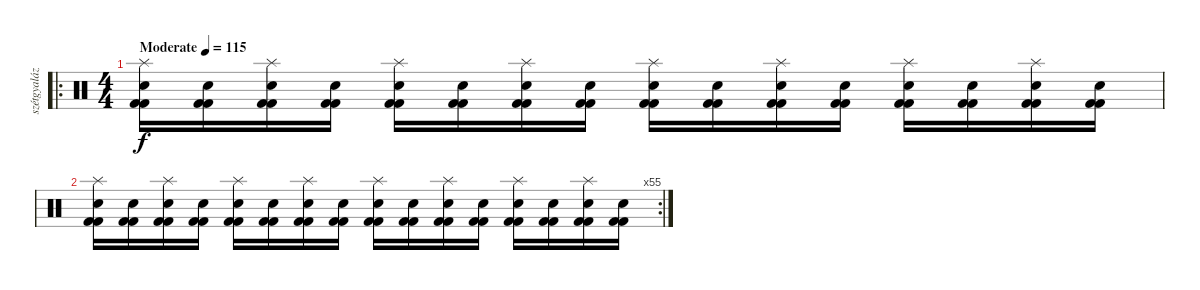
\track ("szétgyalázó" "szétgyaláz") {instrument percussion}
\staff {score}
\articulation defaults
\ro
\ts (4 4)
\tempo (115 "Moderate")
\clef neutral
\ks c
("Splash (hit)" "Electric Snare (hit)" "Kick (hit) 2" "Kick (hit) 2").16{dy f} ("Electric Snare (hit)" "Kick (hit) 2" "Kick (hit) 2").16 ("Splash (hit)" "Electric Snare (hit)" "Kick (hit) 2" "Kick (hit) 2").16 ("Electric Snare (hit)" "Kick (hit) 2" "Kick (hit) 2").16 ("Splash (hit)" "Electric Snare (hit)" "Kick (hit) 2" "Kick (hit) 2").16 ("Electric Snare (hit)" "Kick (hit) 2" "Kick (hit) 2").16 ("Splash (hit)" "Electric Snare (hit)" "Kick (hit) 2" "Kick (hit) 2").16 ("Electric Snare (hit)" "Kick (hit) 2" "Kick (hit) 2").16 ("Splash (hit)" "Electric Snare (hit)" "Kick (hit) 2" "Kick (hit) 2").16 ("Electric Snare (hit)" "Kick (hit) 2" "Kick (hit) 2").16 ("Splash (hit)" "Electric Snare (hit)" "Kick (hit) 2" "Kick (hit) 2").16 ("Electric Snare (hit)" "Kick (hit) 2" "Kick (hit) 2").16 ("Splash (hit)" "Electric Snare (hit)" "Kick (hit) 2" "Kick (hit) 2").16 ("Electric Snare (hit)" "Kick (hit) 2" "Kick (hit) 2").16 ("Splash (hit)" "Electric Snare (hit)" "Kick (hit) 2" "Kick (hit) 2").16 ("Electric Snare (hit)" "Kick (hit) 2" "Kick (hit) 2").16 |
\rc 55
("Splash (hit)" "Electric Snare (hit)" "Kick (hit) 2" "Kick (hit) 2").16 ("Electric Snare (hit)" "Kick (hit) 2" "Kick (hit) 2").16 ("Splash (hit)" "Electric Snare (hit)" "Kick (hit) 2" "Kick (hit) 2").16 ("Electric Snare (hit)" "Kick (hit) 2" "Kick (hit) 2").16 ("Splash (hit)" "Electric Snare (hit)" "Kick (hit) 2" "Kick (hit) 2").16 ("Electric Snare (hit)" "Kick (hit) 2" "Kick (hit) 2").16 ("Splash (hit)" "Electric Snare (hit)" "Kick (hit) 2" "Kick (hit) 2").16 ("Electric Snare (hit)" "Kick (hit) 2" "Kick (hit) 2").16 ("Splash (hit)" "Electric Snare (hit)" "Kick (hit) 2" "Kick (hit) 2").16 ("Electric Snare (hit)" "Kick (hit) 2" "Kick (hit) 2").16 ("Splash (hit)" "Electric Snare (hit)" "Kick (hit) 2" "Kick (hit) 2").16 ("Electric Snare (hit)" "Kick (hit) 2" "Kick (hit) 2").16 ("Splash (hit)" "Electric Snare (hit)" "Kick (hit) 2" "Kick (hit) 2").16 ("Electric Snare (hit)" "Kick (hit) 2" "Kick (hit) 2").16 ("Splash (hit)" "Electric Snare (hit)" "Kick (hit) 2" "Kick (hit) 2").16 ("Electric Snare (hit)" "Kick (hit) 2" "Kick (hit) 2").16
